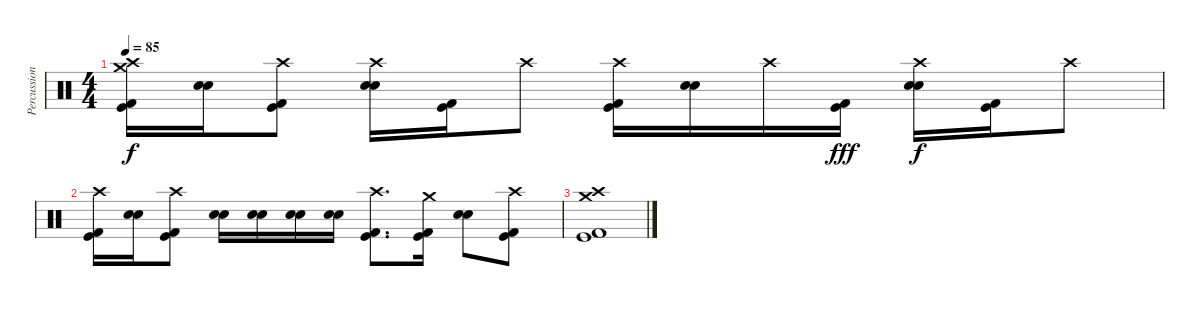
\track ("Percussion" "Percussion") {instrument percussion}
\staff {score}
\articulation defaults
\ts (4 4)
\tempo 85
\clef neutral
\ks c
("Crash high (hit)" "Crash medium (hit)" "Kick (hit)" "Kick (hit) 2").16{dy f} ("Electric Snare (hit)" "Snare (hit) 2").16 ("Crash high (hit)" "Kick (hit)" "Kick (hit) 2").8 ("Crash high (hit)" "Electric Snare (hit)" "Snare (hit) 2").16 ("Kick (hit)" "Kick (hit) 2").16 "Crash high (hit)".8 ("Crash high (hit)" "Kick (hit)" "Kick (hit) 2").16 ("Electric Snare (hit)" "Snare (hit) 2").16 "Crash high (hit)".16 ("Kick (hit)" "Kick (hit) 2").16{dy fff} ("Crash high (hit)" "Electric Snare (hit)" "Snare (hit) 2").16{dy f} ("Kick (hit)" "Kick (hit) 2").16 "Crash high (hit)".8 |
("Crash high (hit)" "Kick (hit)" "Kick (hit) 2").16 ("Electric Snare (hit)" "Snare (hit) 2").16 ("Crash high (hit)" "Kick (hit)" "Kick (hit) 2").8 ("Electric Snare (hit)" "Snare (hit) 2").16 ("Electric Snare (hit)" "Snare (hit) 2").16 ("Electric Snare (hit)" "Snare (hit) 2").16 ("Electric Snare (hit)" "Snare (hit) 2").16 ("Crash high (hit)" "Kick (hit)" "Kick (hit) 2").8{d} ("Crash medium (hit)" "Kick (hit)" "Kick (hit) 2").16 ("Electric Snare (hit)" "Snare (hit) 2").8 ("Crash high (hit)" "Kick (hit)" "Kick (hit) 2").8 |
("Crash medium (hit)" "Crash high (hit)" "Kick (hit)" "Kick (hit) 2").1
